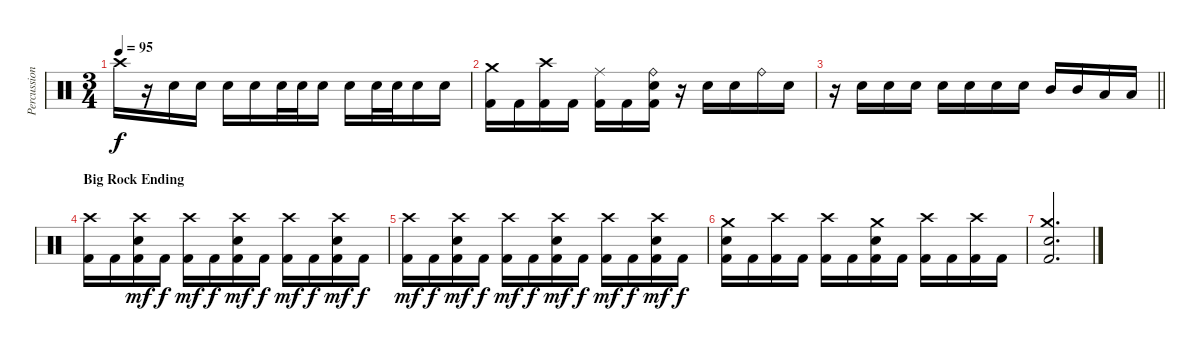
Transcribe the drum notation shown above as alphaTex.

\track ("Percussion" "Percussion") {instrument percussion}
\staff {score}
\articulation defaults
\ts (3 4)
\tempo 95
\clef neutral
\ks c "Crash high (hit)".16{dy f}
r.16 "Electric Snare (hit)".16 "Electric Snare (hit)".16 "Electric Snare (hit)".16 "Electric Snare (hit)".16 "Electric Snare (hit)".32 "Electric Snare (hit)".32 "Electric Snare (hit)".16 "Electric Snare (hit)".16 "Electric Snare (hit)".32 "Electric Snare (hit)".32 "Electric Snare (hit)".16 "Electric Snare (hit)".16 |
("Crash medium (hit)" "Kick (hit) 2").16 "Kick (hit) 2".16 ("Crash high (hit)" "Kick (hit) 2").16 "Kick (hit) 2".16 ("Ride (middle)" "Kick (hit) 2").16 "Kick (hit) 2".16 ("Ride (bell)" "Electric Snare (hit)" "Kick (hit) 2").16 r.16 "Electric Snare (hit)".16 "Electric Snare (hit)".16 "Ride (bell)".16 "Electric Snare (hit)".16 |
\barLineRight lightlight
r.16 "Electric Snare (hit)".16 "Electric Snare (hit)".16 "Electric Snare (hit)".16 "Electric Snare (hit)".16 "Electric Snare (hit)".16 "Electric Snare (hit)".16 "Electric Snare (hit)".16 "Mid Tom (hit)".16 "Mid Tom (hit)".16 "Low Tom (hit)".16 "Low Tom (hit)".16 |
\section ("" "Big Rock Ending")
("Crash high (hit)" "Kick (hit) 2").16 "Kick (hit) 2".16 ("Crash high (hit)" "Electric Snare (hit)" "Kick (hit) 2").16{dy mf} "Kick (hit) 2".16{dy f} ("Crash high (hit)" "Kick (hit) 2").16{dy mf} "Kick (hit) 2".16{dy f} ("Crash high (hit)" "Electric Snare (hit)" "Kick (hit) 2").16{dy mf} "Kick (hit) 2".16{dy f} ("Crash high (hit)" "Kick (hit) 2").16{dy mf} "Kick (hit) 2".16{dy f} ("Crash high (hit)" "Electric Snare (hit)" "Kick (hit) 2").16{dy mf} "Kick (hit) 2".16{dy f} |
("Crash high (hit)" "Kick (hit) 2").16{dy mf} "Kick (hit) 2".16{dy f} ("Crash high (hit)" "Electric Snare (hit)" "Kick (hit) 2").16{dy mf} "Kick (hit) 2".16{dy f} ("Crash high (hit)" "Kick (hit) 2").16{dy mf} "Kick (hit) 2".16{dy f} ("Crash high (hit)" "Electric Snare (hit)" "Kick (hit) 2").16{dy mf} "Kick (hit) 2".16{dy f} ("Crash high (hit)" "Kick (hit) 2").16{dy mf} "Kick (hit) 2".16{dy f} ("Crash high (hit)" "Electric Snare (hit)" "Kick (hit) 2").16{dy mf} "Kick (hit) 2".16{dy f} |
("Crash medium (hit)" "Electric Snare (hit)" "Kick (hit) 2").16 "Kick (hit) 2".16 ("Crash high (hit)" "Kick (hit) 2").16 "Kick (hit) 2".16 ("Crash high (hit)" "Kick (hit) 2").16 "Kick (hit) 2".16 ("Crash medium (hit)" "Electric Snare (hit)" "Kick (hit) 2").16 "Kick (hit) 2".16 ("Crash high (hit)" "Kick (hit) 2").16 "Kick (hit) 2".16 ("Crash high (hit)" "Kick (hit) 2").16 "Kick (hit) 2".16 |
("Crash medium (hit)" "Electric Snare (hit)" "Kick (hit) 2").2{d}
